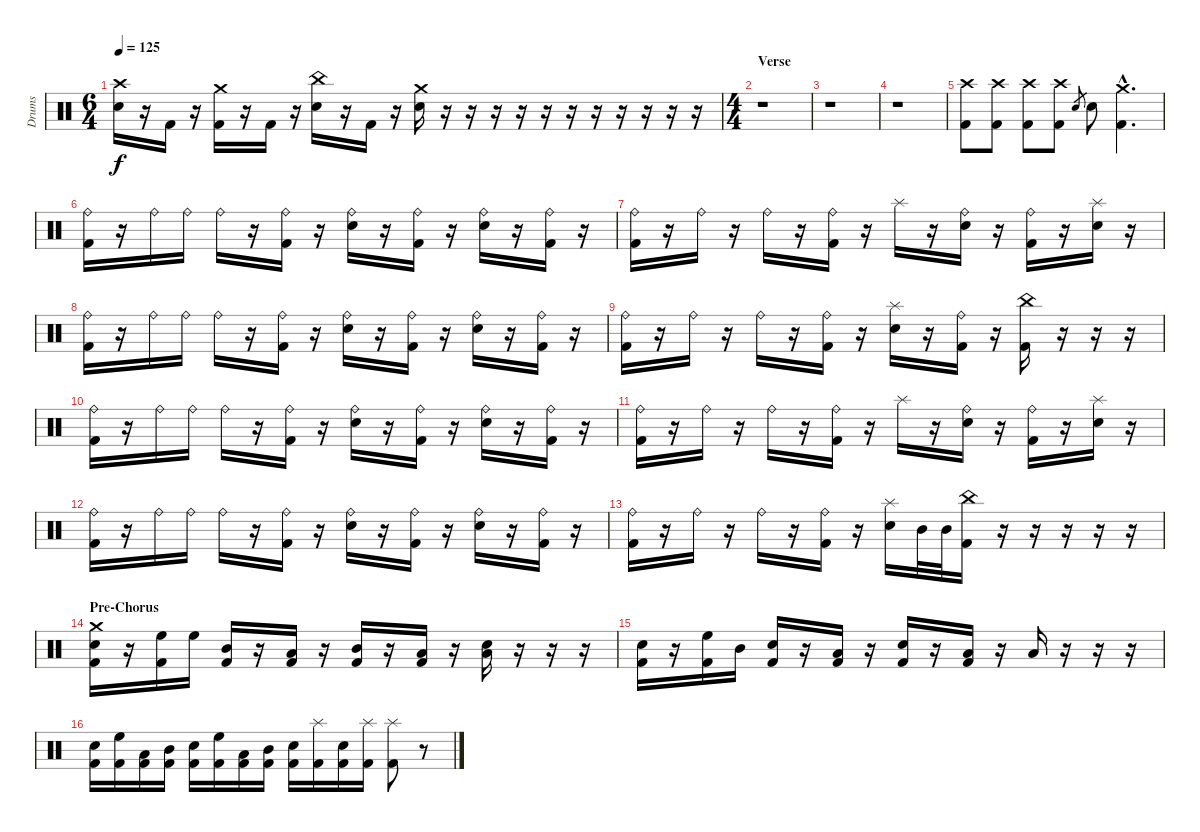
\track ("Drums" "Drums") {instrument percussion}
\staff {score}
\articulation defaults
\ts (6 4)
\tempo 125
\clef neutral
\ks c
("Crash high (hit)" "Electric Snare (hit)").16{dy f} r.16 "Kick (hit) 2".16 r.16 ("Crash medium (hit)" "Kick (hit) 2").16 r.16 "Kick (hit) 2".16 r.16 ("China (hit)" "Electric Snare (hit)").16 r.16 "Kick (hit) 2".16 r.16 ("Crash medium (hit)" "Electric Snare (hit)").16 r.16 r.16 r.16 r.16 r.16 r.16 r.16 r.16 r.16 r.16 r.16 |
\ts (4 4)
\section ("" "Verse")
r.1 |
r.1 |
r.1 |
("Crash high (hit)" "Kick (hit) 2").8 ("Crash high (hit)" "Kick (hit) 2").8 ("Crash high (hit)" "Kick (hit) 2").8 ("Crash high (hit)" "Kick (hit) 2").8 "Electric Snare (hit)".8{gr} "Electric Snare (hit)".8 ("Crash medium (hit)"{hac} "Kick (hit) 2"{hac}).4{d} |
("Ride (bell)" "Kick (hit) 2").16 r.16 "Ride (bell)".16 "Ride (bell)".16 "Ride (bell)".16 r.16 ("Ride (bell)" "Kick (hit) 2").16 r.16 ("Ride (bell)" "Electric Snare (hit)").16 r.16 ("Ride (bell)" "Kick (hit) 2").16 r.16 ("Ride (bell)" "Electric Snare (hit)").16 r.16 ("Ride (bell)" "Kick (hit) 2").16 r.16 |
("Ride (bell)" "Kick (hit) 2").16 r.16 "Ride (bell)".16 r.16 "Ride (bell)".16 r.16 ("Ride (bell)" "Kick (hit) 2").16 r.16 "Splash (hit)".16 r.16 ("Ride (bell)" "Electric Snare (hit)").16 r.16 ("Ride (bell)" "Kick (hit) 2").16 r.16 ("Splash (hit)" "Electric Snare (hit)").16 r.16 |
("Ride (bell)" "Kick (hit) 2").16 r.16 "Ride (bell)".16 "Ride (bell)".16 "Ride (bell)".16 r.16 ("Ride (bell)" "Kick (hit) 2").16 r.16 ("Ride (bell)" "Electric Snare (hit)").16 r.16 ("Ride (bell)" "Kick (hit) 2").16 r.16 ("Ride (bell)" "Electric Snare (hit)").16 r.16 ("Ride (bell)" "Kick (hit) 2").16 r.16 |
("Ride (bell)" "Kick (hit) 2").16 r.16 "Ride (bell)".16 r.16 "Ride (bell)".16 r.16 ("Ride (bell)" "Kick (hit) 2").16 r.16 ("Splash (hit)" "Electric Snare (hit)").16 r.16 ("Ride (bell)" "Kick (hit) 2").16 r.16 ("China (hit)" "Kick (hit) 2").16 r.16 r.16 r.16 |
("Ride (bell)" "Kick (hit) 2").16 r.16 "Ride (bell)".16 "Ride (bell)".16 "Ride (bell)".16 r.16 ("Ride (bell)" "Kick (hit) 2").16 r.16 ("Ride (bell)" "Electric Snare (hit)").16 r.16 ("Ride (bell)" "Kick (hit) 2").16 r.16 ("Ride (bell)" "Electric Snare (hit)").16 r.16 ("Ride (bell)" "Kick (hit) 2").16 r.16 |
("Ride (bell)" "Kick (hit) 2").16 r.16 "Ride (bell)".16 r.16 "Ride (bell)".16 r.16 ("Ride (bell)" "Kick (hit) 2").16 r.16 "Splash (hit)".16 r.16 ("Ride (bell)" "Electric Snare (hit)").16 r.16 ("Ride (bell)" "Kick (hit) 2").16 r.16 ("Splash (hit)" "Electric Snare (hit)").16 r.16 |
("Ride (bell)" "Kick (hit) 2").16 r.16 "Ride (bell)".16 "Ride (bell)".16 "Ride (bell)".16 r.16 ("Ride (bell)" "Kick (hit) 2").16 r.16 ("Ride (bell)" "Electric Snare (hit)").16 r.16 ("Ride (bell)" "Kick (hit) 2").16 r.16 ("Ride (bell)" "Electric Snare (hit)").16 r.16 ("Ride (bell)" "Kick (hit) 2").16 r.16 |
("Ride (bell)" "Kick (hit) 2").16 r.16 "Ride (bell)".16 r.16 "Ride (bell)".16 r.16 ("Ride (bell)" "Kick (hit) 2").16 r.16 ("Splash (hit)" "Electric Snare (hit)").16 "Mid Tom (hit)".32 "Mid Tom (hit)".32 ("China (hit)" "Kick (hit) 2").16 r.16 r.16 r.16 r.16 r.16 |
\section ("" "Pre-Chorus")
("Crash medium (hit)" "Electric Snare (hit)" "Kick (hit) 2").16 r.16 ("High Floor Tom (hit)" "Kick (hit) 2").16 "High Floor Tom (hit)".16 ("Mid Tom (hit)" "Kick (hit) 2").16 r.16 ("Low Tom (hit)" "Kick (hit) 2").16 r.16 ("Mid Tom (hit)" "Kick (hit) 2").16 r.16 ("Low Tom (hit)" "Kick (hit) 2").16 r.16 ("Electric Snare (hit)" "Low Floor Tom (hit)").16 r.16 r.16 r.16 |
("Electric Snare (hit)" "Kick (hit) 2").16 r.16 ("High Floor Tom (hit)" "Kick (hit) 2").16 "Mid Tom (hit)".16 ("Electric Snare (hit)" "Kick (hit) 2").16 r.16 ("Low Tom (hit)" "Kick (hit) 2").16 r.16 ("Electric Snare (hit)" "Kick (hit) 2").16 r.16 ("Low Tom (hit)" "Kick (hit) 2").16 r.16 "Low Floor Tom (hit)".16 r.16 r.16 r.16 |
("Electric Snare (hit)" "Kick (hit) 2").16 ("High Floor Tom (hit)" "Kick (hit) 2").16 ("Low Tom (hit)" "Kick (hit) 2").16 ("Mid Tom (hit)" "Kick (hit) 2").16 ("Electric Snare (hit)" "Kick (hit) 2").16 ("High Floor Tom (hit)" "Kick (hit) 2").16 ("Low Tom (hit)" "Kick (hit) 2").16 ("Mid Tom (hit)" "Kick (hit) 2").16 ("Electric Snare (hit)" "Kick (hit) 2").16 ("Splash (hit)" "Kick (hit) 2").16 ("Electric Snare (hit)" "Kick (hit) 2").16 ("Splash (hit)" "Kick (hit) 2").16 ("Splash (hit)" "Kick (hit) 2").8 r.8{volume 0}
